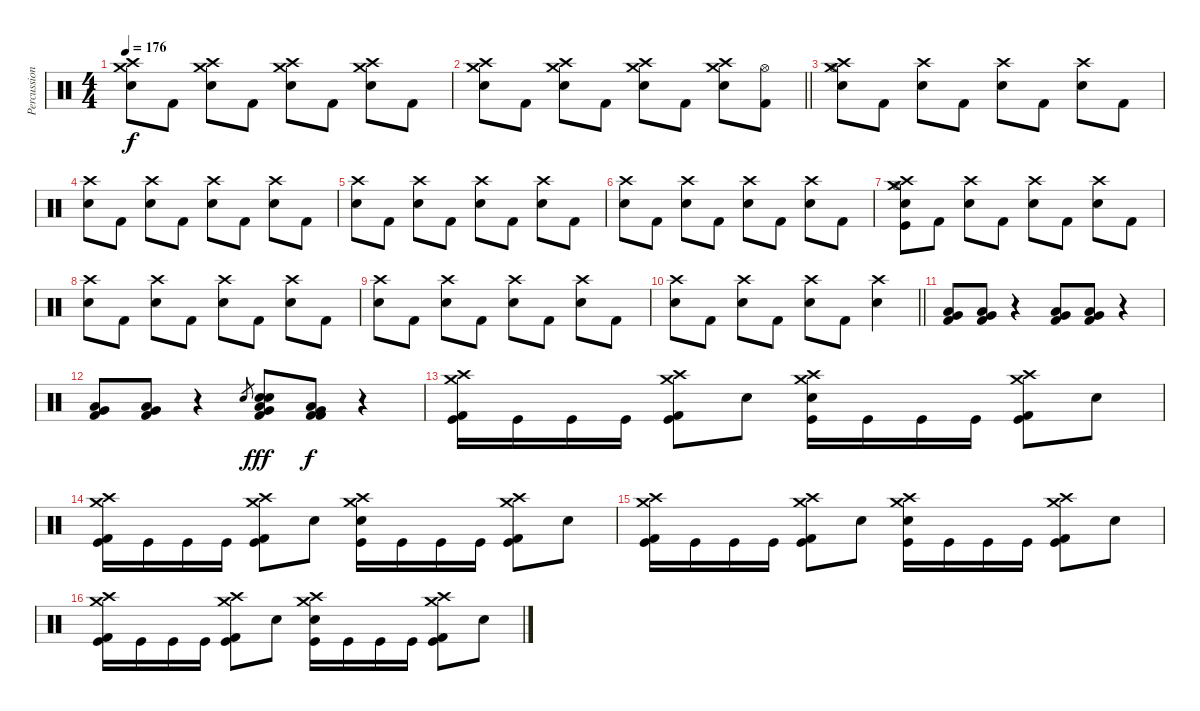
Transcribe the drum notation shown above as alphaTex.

\track ("Percussion" "Percussion") {instrument percussion}
\staff {score}
\articulation defaults
\ts (4 4)
\tempo 176
\clef neutral
\ks c
("Crash medium (hit)" "Crash high (hit)" "Electric Snare (hit)").8{dy f} "Kick (hit) 2".8 ("Crash medium (hit)" "Crash high (hit)" "Electric Snare (hit)").8 "Kick (hit) 2".8 ("Crash medium (hit)" "Crash high (hit)" "Electric Snare (hit)").8 "Kick (hit) 2".8 ("Crash high (hit)" "Crash medium (hit)" "Electric Snare (hit)").8 "Kick (hit) 2".8 |
\barLineRight lightlight
("Crash medium (hit)" "Crash high (hit)" "Electric Snare (hit)").8 "Kick (hit) 2".8 ("Crash medium (hit)" "Crash high (hit)" "Electric Snare (hit)").8 "Kick (hit) 2".8 ("Crash medium (hit)" "Crash high (hit)" "Electric Snare (hit)").8 "Kick (hit) 2".8 ("Crash high (hit)" "Crash medium (hit)" "Electric Snare (hit)").8 ("Hi-Hat (open)" "Kick (hit) 2").8 |
("Crash medium (hit)" "Crash high (hit)" "Hi-Hat (open)" "Electric Snare (hit)").8 "Kick (hit) 2".8 ("Crash high (hit)" "Electric Snare (hit)").8 "Kick (hit) 2".8 ("Crash high (hit)" "Electric Snare (hit)").8 "Kick (hit) 2".8 ("Crash high (hit)" "Electric Snare (hit)").8 "Kick (hit) 2".8 |
("Crash high (hit)" "Electric Snare (hit)").8 "Kick (hit) 2".8 ("Crash high (hit)" "Electric Snare (hit)").8 "Kick (hit) 2".8 ("Crash high (hit)" "Electric Snare (hit)").8 "Kick (hit) 2".8 ("Crash high (hit)" "Electric Snare (hit)").8 "Kick (hit) 2".8 |
("Crash high (hit)" "Electric Snare (hit)").8 "Kick (hit) 2".8 ("Crash high (hit)" "Electric Snare (hit)").8 "Kick (hit) 2".8 ("Crash high (hit)" "Electric Snare (hit)").8 "Kick (hit) 2".8 ("Crash high (hit)" "Electric Snare (hit)").8 "Kick (hit) 2".8 |
("Crash high (hit)" "Electric Snare (hit)").8 "Kick (hit) 2".8 ("Crash high (hit)" "Electric Snare (hit)").8 "Kick (hit) 2".8 ("Crash high (hit)" "Electric Snare (hit)").8 "Kick (hit) 2".8 ("Crash high (hit)" "Electric Snare (hit)").8 "Kick (hit) 2".8 |
("Crash medium (hit)" "Crash high (hit)" "Hi-Hat (open)" "Kick (hit)" "Electric Snare (hit)").8 "Kick (hit) 2".8 ("Crash high (hit)" "Electric Snare (hit)").8 "Kick (hit) 2".8 ("Crash high (hit)" "Electric Snare (hit)").8 "Kick (hit) 2".8 ("Crash high (hit)" "Electric Snare (hit)").8 "Kick (hit) 2".8 |
("Crash high (hit)" "Electric Snare (hit)").8 "Kick (hit) 2".8 ("Crash high (hit)" "Electric Snare (hit)").8 "Kick (hit) 2".8 ("Crash high (hit)" "Electric Snare (hit)").8 "Kick (hit) 2".8 ("Crash high (hit)" "Electric Snare (hit)").8 "Kick (hit) 2".8 |
("Crash high (hit)" "Electric Snare (hit)").8 "Kick (hit) 2".8 ("Crash high (hit)" "Electric Snare (hit)").8 "Kick (hit) 2".8 ("Crash high (hit)" "Electric Snare (hit)").8 "Kick (hit) 2".8 ("Crash high (hit)" "Electric Snare (hit)").8 "Kick (hit) 2".8 |
\barLineRight lightlight
("Crash high (hit)" "Electric Snare (hit)").8 "Kick (hit) 2".8 ("Crash high (hit)" "Electric Snare (hit)").8 "Kick (hit) 2".8 ("Crash high (hit)" "Electric Snare (hit)").8 "Kick (hit) 2".8 ("Crash high (hit)" "Electric Snare (hit)").4 |
("Kick (hit) 2" "Low Tom (hit)" "Very Low Tom (hit)").8 ("Kick (hit) 2" "Very Low Tom (hit)" "Low Floor Tom (hit)").8 r.4 ("Kick (hit) 2" "Low Tom (hit)" "Very Low Tom (hit)").8 ("Kick (hit) 2" "Very Low Tom (hit)" "Low Floor Tom (hit)").8 r.4 |
("Kick (hit) 2" "Low Tom (hit)" "Very Low Tom (hit)").8 ("Kick (hit) 2" "Very Low Tom (hit)" "Low Floor Tom (hit)").8 r.4 "Electric Snare (hit)".8{gr} ("Electric Snare (hit)" "Electric Snare (hit)" "Kick (hit) 2" "Low Tom (hit)" "Very Low Tom (hit)").8{dy fff} ("Kick (hit) 2" "Kick (hit) 2" "Very Low Tom (hit)" "Low Floor Tom (hit)").8{dy f} r.4 |
("Crash medium (hit)" "Crash high (hit)" "Kick (hit) 2" "Kick (hit)").16 "Kick (hit)".16 "Kick (hit)".16 "Kick (hit)".16 ("Crash high (hit)" "Crash medium (hit)" "Kick (hit) 2" "Kick (hit)").8 "Snare (hit)"{x}.8 ("Crash medium (hit)" "Crash high (hit)" "Electric Snare (hit)" "Kick (hit)").16 "Kick (hit)".16 "Kick (hit)".16 "Kick (hit)".16 ("Crash high (hit)" "Crash medium (hit)" "Kick (hit) 2" "Kick (hit)").8 "Snare (hit)"{x}.8 |
("Crash medium (hit)" "Crash high (hit)" "Kick (hit) 2" "Kick (hit)").16 "Kick (hit)".16 "Kick (hit)".16 "Kick (hit)".16 ("Crash high (hit)" "Crash medium (hit)" "Kick (hit) 2" "Kick (hit)").8 "Snare (hit)"{x}.8 ("Crash medium (hit)" "Crash high (hit)" "Electric Snare (hit)" "Kick (hit)").16 "Kick (hit)".16 "Kick (hit)".16 "Kick (hit)".16 ("Crash high (hit)" "Crash medium (hit)" "Kick (hit) 2" "Kick (hit)").8 "Snare (hit)"{x}.8 |
("Crash medium (hit)" "Crash high (hit)" "Kick (hit) 2" "Kick (hit)").16 "Kick (hit)".16 "Kick (hit)".16 "Kick (hit)".16 ("Crash high (hit)" "Crash medium (hit)" "Kick (hit) 2" "Kick (hit)").8 "Snare (hit)"{x}.8 ("Crash medium (hit)" "Crash high (hit)" "Electric Snare (hit)" "Kick (hit)").16 "Kick (hit)".16 "Kick (hit)".16 "Kick (hit)".16 ("Crash high (hit)" "Crash medium (hit)" "Kick (hit) 2" "Kick (hit)").8 "Snare (hit)"{x}.8 |
("Crash medium (hit)" "Crash high (hit)" "Kick (hit) 2" "Kick (hit)").16 "Kick (hit)".16 "Kick (hit)".16 "Kick (hit)".16 ("Crash high (hit)" "Crash medium (hit)" "Kick (hit) 2" "Kick (hit)").8 "Snare (hit)"{x}.8 ("Crash medium (hit)" "Crash high (hit)" "Electric Snare (hit)" "Kick (hit)").16 "Kick (hit)".16 "Kick (hit)".16 "Kick (hit)".16 ("Crash high (hit)" "Crash medium (hit)" "Kick (hit) 2" "Kick (hit)").8 "Snare (hit)"{x}.8
